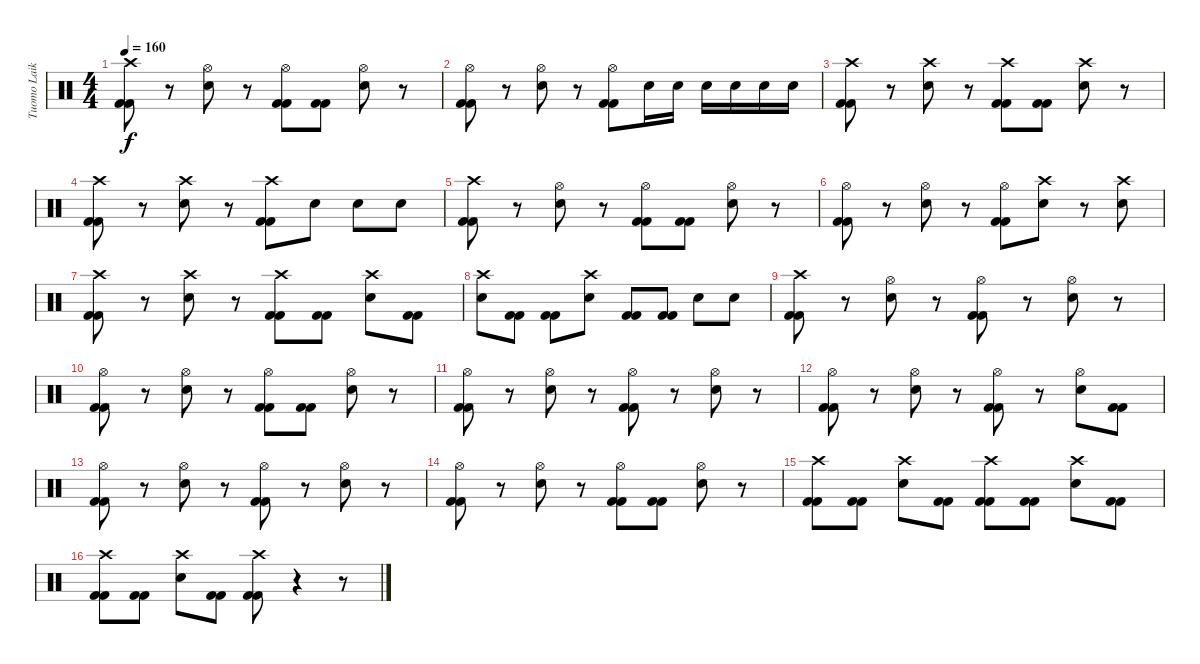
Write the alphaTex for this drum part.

\track ("Tuomo Laikari" "Tuomo Laik") {instrument percussion}
\staff {score}
\articulation defaults
\ts (4 4)
\tempo 160
\clef neutral
\ks c
("Crash high (hit)" "Kick (hit) 2" "Kick (hit) 2").8{dy f} r.8 ("Hi-Hat (open)" "Electric Snare (hit)").8 r.8 ("Hi-Hat (open)" "Kick (hit) 2" "Kick (hit) 2").8 ("Kick (hit) 2" "Kick (hit) 2").8 ("Hi-Hat (open)" "Electric Snare (hit)").8 r.8 |
("Hi-Hat (open)" "Kick (hit) 2" "Kick (hit) 2").8 r.8 ("Hi-Hat (open)" "Electric Snare (hit)").8 r.8 ("Hi-Hat (open)" "Kick (hit) 2" "Kick (hit) 2").8 "Electric Snare (hit)".16 "Electric Snare (hit)".16 "Electric Snare (hit)".16 "Electric Snare (hit)".16 "Electric Snare (hit)".16 "Electric Snare (hit)".16 |
("Crash high (hit)" "Kick (hit) 2" "Kick (hit) 2").8 r.8 ("Crash high (hit)" "Electric Snare (hit)").8 r.8 ("Crash high (hit)" "Kick (hit) 2" "Kick (hit) 2").8 ("Kick (hit) 2" "Kick (hit) 2").8 ("Crash high (hit)" "Electric Snare (hit)").8 r.8 |
("Crash high (hit)" "Kick (hit) 2" "Kick (hit) 2").8 r.8 ("Crash high (hit)" "Electric Snare (hit)").8 r.8 ("Crash high (hit)" "Kick (hit) 2" "Kick (hit) 2").8 "Electric Snare (hit)".8 "Electric Snare (hit)".8 "Electric Snare (hit)".8 |
("Crash high (hit)" "Kick (hit) 2" "Kick (hit) 2").8 r.8 ("Hi-Hat (open)" "Electric Snare (hit)").8 r.8 ("Hi-Hat (open)" "Kick (hit) 2" "Kick (hit) 2").8 ("Kick (hit) 2" "Kick (hit) 2").8 ("Hi-Hat (open)" "Electric Snare (hit)").8 r.8 |
("Hi-Hat (open)" "Kick (hit) 2" "Kick (hit) 2").8 r.8 ("Hi-Hat (open)" "Electric Snare (hit)").8 r.8 ("Hi-Hat (open)" "Kick (hit) 2" "Kick (hit) 2").8 ("Crash high (hit)" "Electric Snare (hit)").8 r.8 ("Crash high (hit)" "Electric Snare (hit)").8 |
("Crash high (hit)" "Kick (hit) 2" "Kick (hit) 2").8 r.8 ("Crash high (hit)" "Electric Snare (hit)").8 r.8 ("Crash high (hit)" "Kick (hit) 2" "Kick (hit) 2").8 ("Kick (hit) 2" "Kick (hit) 2").8 ("Crash high (hit)" "Electric Snare (hit)").8 ("Kick (hit) 2" "Kick (hit) 2").8 |
("Crash high (hit)" "Electric Snare (hit)").8 ("Kick (hit) 2" "Kick (hit) 2").8 ("Kick (hit) 2" "Kick (hit) 2").8 ("Crash high (hit)" "Electric Snare (hit)").8 ("Kick (hit) 2" "Kick (hit) 2").8 ("Kick (hit) 2" "Kick (hit) 2").8 "Electric Snare (hit)".8 "Electric Snare (hit)".8 |
("Crash high (hit)" "Kick (hit) 2" "Kick (hit) 2").8 r.8 ("Hi-Hat (open)" "Electric Snare (hit)").8 r.8 ("Hi-Hat (open)" "Kick (hit) 2" "Kick (hit) 2").8 r.8 ("Hi-Hat (open)" "Electric Snare (hit)").8 r.8 |
("Hi-Hat (open)" "Kick (hit) 2" "Kick (hit) 2").8 r.8 ("Hi-Hat (open)" "Electric Snare (hit)").8 r.8 ("Hi-Hat (open)" "Kick (hit) 2" "Kick (hit) 2").8 ("Kick (hit) 2" "Kick (hit) 2").8 ("Hi-Hat (open)" "Electric Snare (hit)").8 r.8 |
("Hi-Hat (open)" "Kick (hit) 2" "Kick (hit) 2").8 r.8 ("Hi-Hat (open)" "Electric Snare (hit)").8 r.8 ("Hi-Hat (open)" "Kick (hit) 2" "Kick (hit) 2").8 r.8 ("Hi-Hat (open)" "Electric Snare (hit)").8 r.8 |
("Hi-Hat (open)" "Kick (hit) 2" "Kick (hit) 2").8 r.8 ("Hi-Hat (open)" "Electric Snare (hit)").8 r.8 ("Hi-Hat (open)" "Kick (hit) 2" "Kick (hit) 2").8 r.8 ("Hi-Hat (open)" "Electric Snare (hit)").8 ("Kick (hit) 2" "Kick (hit) 2").8 |
("Hi-Hat (open)" "Kick (hit) 2" "Kick (hit) 2").8 r.8 ("Hi-Hat (open)" "Electric Snare (hit)").8 r.8 ("Hi-Hat (open)" "Kick (hit) 2" "Kick (hit) 2").8 r.8 ("Hi-Hat (open)" "Electric Snare (hit)").8 r.8 |
("Hi-Hat (open)" "Kick (hit) 2" "Kick (hit) 2").8 r.8 ("Hi-Hat (open)" "Electric Snare (hit)").8 r.8 ("Hi-Hat (open)" "Kick (hit) 2" "Kick (hit) 2").8 ("Kick (hit) 2" "Kick (hit) 2").8 ("Hi-Hat (open)" "Electric Snare (hit)").8 r.8 |
("Crash high (hit)" "Kick (hit) 2" "Kick (hit) 2").8 ("Kick (hit) 2" "Kick (hit) 2").8 ("Crash high (hit)" "Electric Snare (hit)").8 ("Kick (hit) 2" "Kick (hit) 2").8 ("Crash high (hit)" "Kick (hit) 2" "Kick (hit) 2").8 ("Kick (hit) 2" "Kick (hit) 2").8 ("Crash high (hit)" "Electric Snare (hit)").8 ("Kick (hit) 2" "Kick (hit) 2").8 |
("Crash high (hit)" "Kick (hit) 2" "Kick (hit) 2").8 ("Kick (hit) 2" "Kick (hit) 2").8 ("Crash high (hit)" "Electric Snare (hit)").8 ("Kick (hit) 2" "Kick (hit) 2").8 ("Crash high (hit)" "Kick (hit) 2" "Kick (hit) 2").8 r.4 r.8
